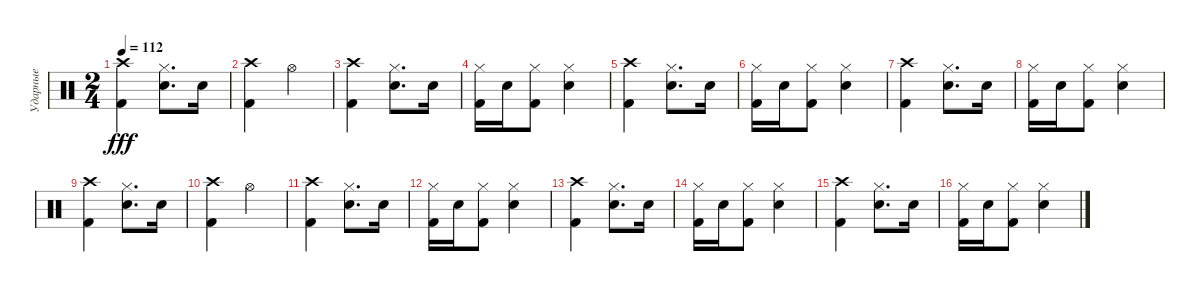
\track ("Ударные" "Ударные") {instrument percussion}
\staff {score}
\articulation defaults
\ts (2 4)
\tempo 112
\clef neutral
\ks c
("Kick (hit) 2" "Crash high (hit)").4{dy fff} ("Hi-Hat (closed)" "Electric Snare (hit)").8{d} "Electric Snare (hit)".16 |
("Kick (hit) 2" "Crash high (hit)").4 "Hi-Hat (open)".4 |
("Kick (hit) 2" "Crash high (hit)").4 ("Electric Snare (hit)" "Hi-Hat (closed)").8{d} "Electric Snare (hit)".16 |
("Kick (hit) 2" "Hi-Hat (closed)").16 "Electric Snare (hit)".16 ("Kick (hit) 2" "Hi-Hat (closed)").8 ("Electric Snare (hit)" "Hi-Hat (closed)").4 |
("Kick (hit) 2" "Crash high (hit)").4 ("Hi-Hat (closed)" "Electric Snare (hit)").8{d} "Electric Snare (hit)".16 |
("Kick (hit) 2" "Hi-Hat (closed)").16 "Electric Snare (hit)".16 ("Kick (hit) 2" "Hi-Hat (closed)").8 ("Electric Snare (hit)" "Hi-Hat (closed)").4 |
("Kick (hit) 2" "Crash high (hit)").4 ("Hi-Hat (closed)" "Electric Snare (hit)").8{d} "Electric Snare (hit)".16 |
("Kick (hit) 2" "Hi-Hat (closed)").16 "Electric Snare (hit)".16 ("Kick (hit) 2" "Hi-Hat (closed)").8 ("Electric Snare (hit)" "Hi-Hat (closed)").4 |
("Kick (hit) 2" "Crash high (hit)").4 ("Hi-Hat (closed)" "Electric Snare (hit)").8{d} "Electric Snare (hit)".16 |
("Kick (hit) 2" "Crash high (hit)").4 "Hi-Hat (open)".4 |
("Kick (hit) 2" "Crash high (hit)").4 ("Electric Snare (hit)" "Hi-Hat (closed)").8{d} "Electric Snare (hit)".16 |
("Kick (hit) 2" "Hi-Hat (closed)").16 "Electric Snare (hit)".16 ("Kick (hit) 2" "Hi-Hat (closed)").8 ("Electric Snare (hit)" "Hi-Hat (closed)").4 |
("Kick (hit) 2" "Crash high (hit)").4 ("Electric Snare (hit)" "Hi-Hat (closed)").8{d} "Electric Snare (hit)".16 |
("Kick (hit) 2" "Hi-Hat (closed)").16 "Electric Snare (hit)".16 ("Kick (hit) 2" "Hi-Hat (closed)").8 ("Electric Snare (hit)" "Hi-Hat (closed)").4 |
("Kick (hit) 2" "Crash high (hit)").4 ("Hi-Hat (closed)" "Electric Snare (hit)").8{d} "Electric Snare (hit)".16 |
("Kick (hit) 2" "Hi-Hat (closed)").16 "Electric Snare (hit)".16 ("Kick (hit) 2" "Hi-Hat (closed)").8 ("Electric Snare (hit)" "Hi-Hat (closed)").4
